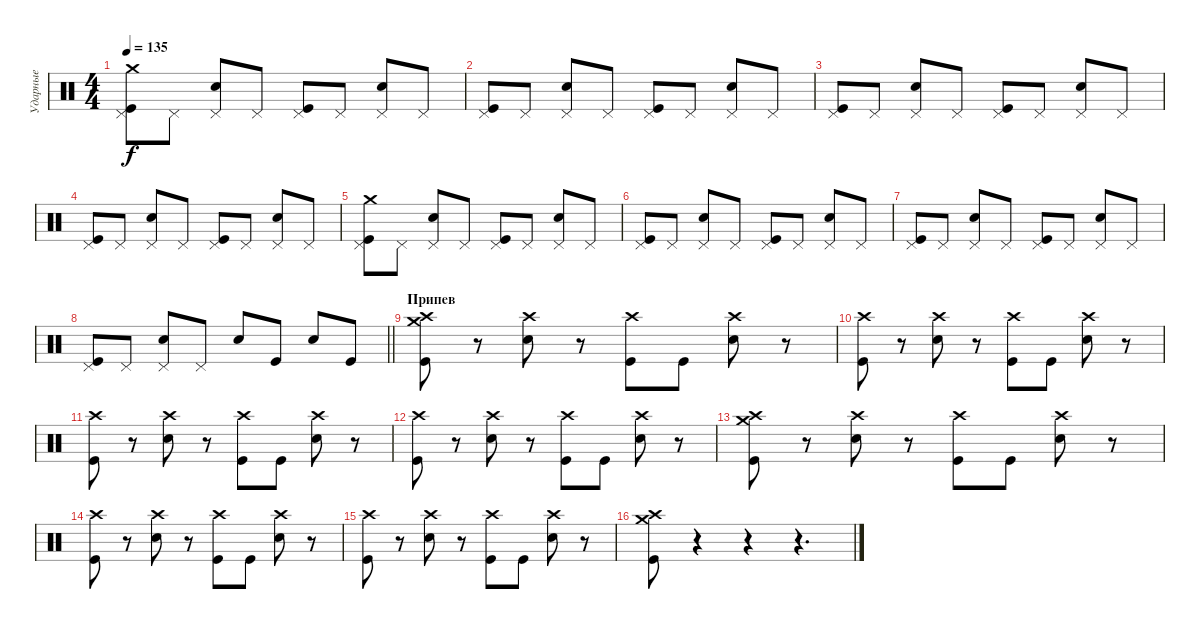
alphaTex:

\track ("Ударные" "Ударные") {instrument percussion bank 9}
\staff {score}
\articulation defaults
\ts (4 4)
\tempo 135
\clef neutral
\ks c
("Crash medium (hit)" "Kick (hit)" "Pedal Hi-Hat (hit)").8{dy f} "Pedal Hi-Hat (hit)".8 ("Electric Snare (hit)" "Pedal Hi-Hat (hit)").8 "Pedal Hi-Hat (hit)".8 ("Kick (hit)" "Pedal Hi-Hat (hit)").8 "Pedal Hi-Hat (hit)".8 ("Electric Snare (hit)" "Pedal Hi-Hat (hit)").8 "Pedal Hi-Hat (hit)".8 |
("Kick (hit)" "Pedal Hi-Hat (hit)").8 "Pedal Hi-Hat (hit)".8 ("Electric Snare (hit)" "Pedal Hi-Hat (hit)").8 "Pedal Hi-Hat (hit)".8 ("Kick (hit)" "Pedal Hi-Hat (hit)").8 "Pedal Hi-Hat (hit)".8 ("Electric Snare (hit)" "Pedal Hi-Hat (hit)").8 "Pedal Hi-Hat (hit)".8 |
("Kick (hit)" "Pedal Hi-Hat (hit)").8 "Pedal Hi-Hat (hit)".8 ("Electric Snare (hit)" "Pedal Hi-Hat (hit)").8 "Pedal Hi-Hat (hit)".8 ("Kick (hit)" "Pedal Hi-Hat (hit)").8 "Pedal Hi-Hat (hit)".8 ("Electric Snare (hit)" "Pedal Hi-Hat (hit)").8 "Pedal Hi-Hat (hit)".8 |
("Kick (hit)" "Pedal Hi-Hat (hit)").8 "Pedal Hi-Hat (hit)".8 ("Electric Snare (hit)" "Pedal Hi-Hat (hit)").8 "Pedal Hi-Hat (hit)".8 ("Kick (hit)" "Pedal Hi-Hat (hit)").8 "Pedal Hi-Hat (hit)".8 ("Electric Snare (hit)" "Pedal Hi-Hat (hit)").8 "Pedal Hi-Hat (hit)".8 |
("Crash medium (hit)" "Kick (hit)" "Pedal Hi-Hat (hit)").8 "Pedal Hi-Hat (hit)".8 ("Electric Snare (hit)" "Pedal Hi-Hat (hit)").8 "Pedal Hi-Hat (hit)".8 ("Kick (hit)" "Pedal Hi-Hat (hit)").8 "Pedal Hi-Hat (hit)".8 ("Electric Snare (hit)" "Pedal Hi-Hat (hit)").8 "Pedal Hi-Hat (hit)".8 |
("Kick (hit)" "Pedal Hi-Hat (hit)").8 "Pedal Hi-Hat (hit)".8 ("Electric Snare (hit)" "Pedal Hi-Hat (hit)").8 "Pedal Hi-Hat (hit)".8 ("Kick (hit)" "Pedal Hi-Hat (hit)").8 "Pedal Hi-Hat (hit)".8 ("Electric Snare (hit)" "Pedal Hi-Hat (hit)").8 "Pedal Hi-Hat (hit)".8 |
("Kick (hit)" "Pedal Hi-Hat (hit)").8 "Pedal Hi-Hat (hit)".8 ("Electric Snare (hit)" "Pedal Hi-Hat (hit)").8 "Pedal Hi-Hat (hit)".8 ("Kick (hit)" "Pedal Hi-Hat (hit)").8 "Pedal Hi-Hat (hit)".8 ("Electric Snare (hit)" "Pedal Hi-Hat (hit)").8 "Pedal Hi-Hat (hit)".8 |
\barLineRight lightlight
("Kick (hit)" "Pedal Hi-Hat (hit)").8 "Pedal Hi-Hat (hit)".8 ("Electric Snare (hit)" "Pedal Hi-Hat (hit)").8 "Pedal Hi-Hat (hit)".8 "Electric Snare (hit)".8 "Kick (hit)".8 "Electric Snare (hit)".8 "Kick (hit)".8 |
\section ("" "Припев")
("Crash high (hit)" "Kick (hit)" "Crash medium (hit)").8 r.8 ("Crash high (hit)" "Electric Snare (hit)").8 r.8 ("Crash high (hit)" "Kick (hit)").8 "Kick (hit)".8 ("Crash high (hit)" "Electric Snare (hit)").8 r.8 |
("Crash high (hit)" "Kick (hit)").8 r.8 ("Crash high (hit)" "Electric Snare (hit)").8 r.8 ("Crash high (hit)" "Kick (hit)").8 "Kick (hit)".8 ("Crash high (hit)" "Electric Snare (hit)").8 r.8 |
("Crash high (hit)" "Kick (hit)").8 r.8 ("Crash high (hit)" "Electric Snare (hit)").8 r.8 ("Crash high (hit)" "Kick (hit)").8 "Kick (hit)".8 ("Crash high (hit)" "Electric Snare (hit)").8 r.8 |
("Crash high (hit)" "Kick (hit)").8 r.8 ("Crash high (hit)" "Electric Snare (hit)").8 r.8 ("Crash high (hit)" "Kick (hit)").8 "Kick (hit)".8 ("Crash high (hit)" "Electric Snare (hit)").8 r.8 |
("Crash high (hit)" "Kick (hit)" "Crash medium (hit)").8 r.8 ("Crash high (hit)" "Electric Snare (hit)").8 r.8 ("Crash high (hit)" "Kick (hit)").8 "Kick (hit)".8 ("Crash high (hit)" "Electric Snare (hit)").8 r.8 |
("Crash high (hit)" "Kick (hit)").8 r.8 ("Crash high (hit)" "Electric Snare (hit)").8 r.8 ("Crash high (hit)" "Kick (hit)").8 "Kick (hit)".8 ("Crash high (hit)" "Electric Snare (hit)").8 r.8 |
("Crash high (hit)" "Kick (hit)").8 r.8 ("Crash high (hit)" "Electric Snare (hit)").8 r.8 ("Crash high (hit)" "Kick (hit)").8 "Kick (hit)".8 ("Crash high (hit)" "Electric Snare (hit)").8 r.8 |
("Crash high (hit)" "Kick (hit)" "Crash medium (hit)").8 r.4 r.4 r.4{d}
